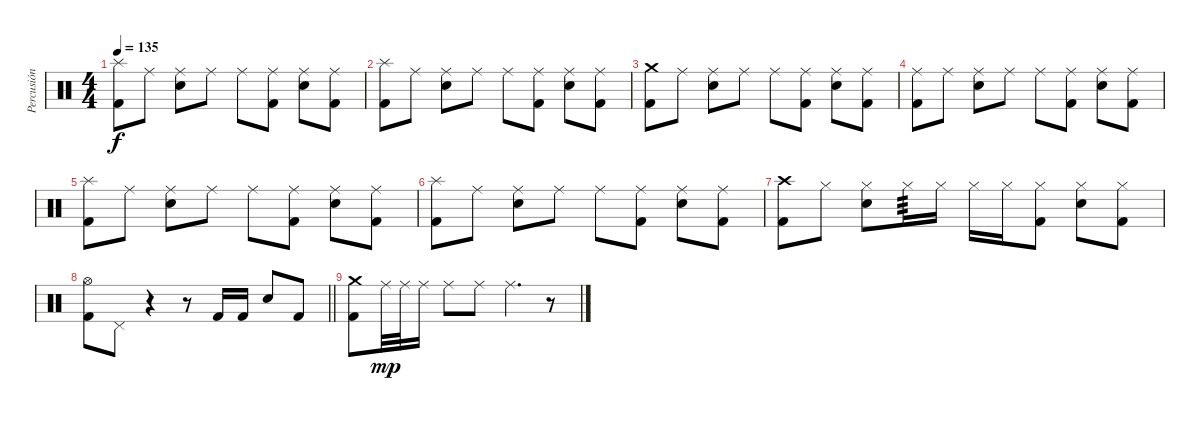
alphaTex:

\track ("Percusión" "Percusión") {instrument percussion}
\staff {score}
\articulation defaults
\ts (4 4)
\tempo 135
\clef neutral
\ks c
("Splash (hit)" "Kick (hit) 2").8{dy f} "Ride (middle)".8 ("Ride (middle)" "Electric Snare (hit)").8 "Ride (middle)".8 "Ride (middle)".8 ("Ride (middle)" "Kick (hit) 2").8 ("Ride (middle)" "Electric Snare (hit)").8 ("Ride (middle)" "Kick (hit) 2").8 |
("Splash (hit)" "Kick (hit) 2").8 "Ride (middle)".8 ("Ride (middle)" "Electric Snare (hit)").8 "Ride (middle)".8 "Ride (middle)".8 ("Ride (middle)" "Kick (hit) 2").8 ("Ride (middle)" "Electric Snare (hit)").8 ("Ride (middle)" "Kick (hit) 2").8 |
("Crash medium (hit)" "Kick (hit) 2").8 "Ride (middle)".8 ("Ride (middle)" "Electric Snare (hit)").8 "Ride (middle)".8 "Ride (middle)".8 ("Ride (middle)" "Kick (hit) 2").8 ("Ride (middle)" "Electric Snare (hit)").8 ("Ride (middle)" "Kick (hit) 2").8 |
("Ride (middle)" "Kick (hit) 2").8 "Ride (middle)".8 ("Ride (middle)" "Electric Snare (hit)").8 "Ride (middle)".8 "Ride (middle)".8 ("Ride (middle)" "Kick (hit) 2").8 ("Ride (middle)" "Electric Snare (hit)").8 ("Ride (middle)" "Kick (hit) 2").8 |
("Splash (hit)" "Kick (hit) 2").8 "Ride (middle)".8 ("Ride (middle)" "Electric Snare (hit)").8 "Ride (middle)".8 "Ride (middle)".8 ("Ride (middle)" "Kick (hit) 2").8 ("Ride (middle)" "Electric Snare (hit)").8 ("Ride (middle)" "Kick (hit) 2").8 |
("Splash (hit)" "Kick (hit) 2").8 "Ride (middle)".8 ("Ride (middle)" "Electric Snare (hit)").8 "Ride (middle)".8 "Ride (middle)".8 ("Ride (middle)" "Kick (hit) 2").8 ("Ride (middle)" "Electric Snare (hit)").8 ("Ride (middle)" "Kick (hit) 2").8 |
("Crash high (hit)" "Kick (hit) 2").8 "Hi-Hat (closed)".8 ("Hi-Hat (closed)" "Electric Snare (hit)").8 "Hi-Hat (closed)".16{tp 3} "Hi-Hat (closed)".16 "Hi-Hat (closed)".16 "Hi-Hat (closed)".16 ("Hi-Hat (closed)" "Kick (hit) 2").8 ("Hi-Hat (closed)" "Electric Snare (hit)").8 ("Hi-Hat (closed)" "Kick (hit) 2").8 |
\barLineRight lightlight
("Hi-Hat (open)" "Kick (hit) 2").8 "Pedal Hi-Hat (hit)".8 r.4 r.8 "Kick (hit) 2".16 "Kick (hit) 2".16 "Electric Snare (hit)".8 "Kick (hit) 2".8 |
("Crash medium (hit)" "Kick (hit) 2").8 "Ride (middle)".32{dy mp} "Ride (middle)".32 "Ride (middle)".16 "Ride (middle)".8 "Ride (middle)".8 "Ride (middle)".4{d} r.8
